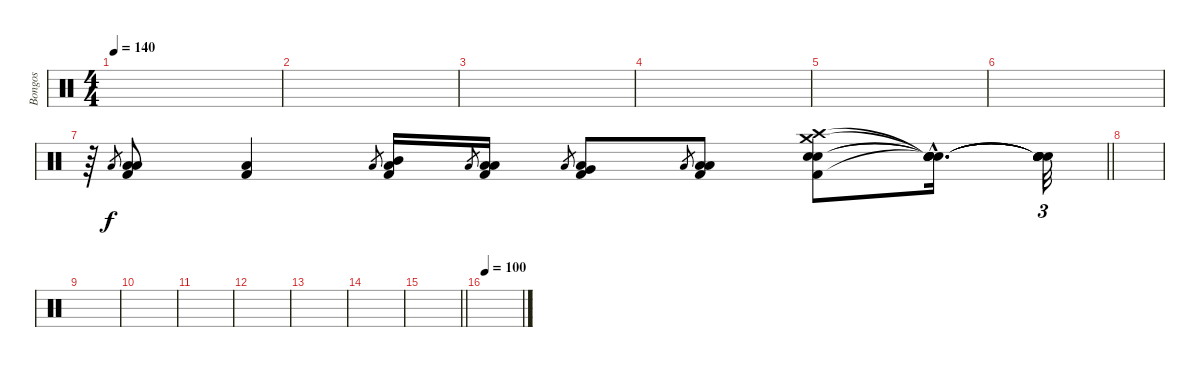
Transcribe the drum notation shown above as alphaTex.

\track ("Bongos" "Bongos") {instrument percussion}
\staff {score}
\articulation defaults
\ts (4 4)
\tempo 140
\clef neutral
\ks c
|
|
|
|
|
|
\barLineRight lightlight
r.64{tu (3 2)} "Low Tom (hit)".8{gr} ("Low Tom (hit)" "Low Tom (hit)" "Kick (hit) 2").8 ("Low Floor Tom (hit)" "Kick (hit) 2").4 "Low Tom (hit)".8{gr} ("Mid Tom (hit)" "Low Tom (hit)" "Kick (hit) 2").16 "Low Tom (hit)".8{gr} ("Low Tom (hit)" "Low Tom (hit)" "Kick (hit) 2").16 "Low Tom (hit)".8{gr} ("Very Low Tom (hit)" "Low Tom (hit)" "Kick (hit) 2").8 "Low Tom (hit)".8{gr} ("Low Floor Tom (hit)" "Low Tom (hit)" "Kick (hit) 2").8 ("Crash high (hit)" "Electric Snare (hit)" "Electric Snare (hit)" "Crash medium (hit)" "Kick (hit) 2").8 ("Snare (hit)"{hac t} "Snare (hit)"{hac t} "Snare (hit)"{hac t} "Snare (hit)"{hac t} "Snare (hit)"{hac t}).16{d} ("Snare (hit)"{t} "Snare (hit)"{t} "Snare (hit)"{t} "Snare (hit)"{t} "Snare (hit)"{t}).32{tu (3 2)} |
|
|
|
|
|
|
|
\barLineRight lightlight
|
\tempo 100
